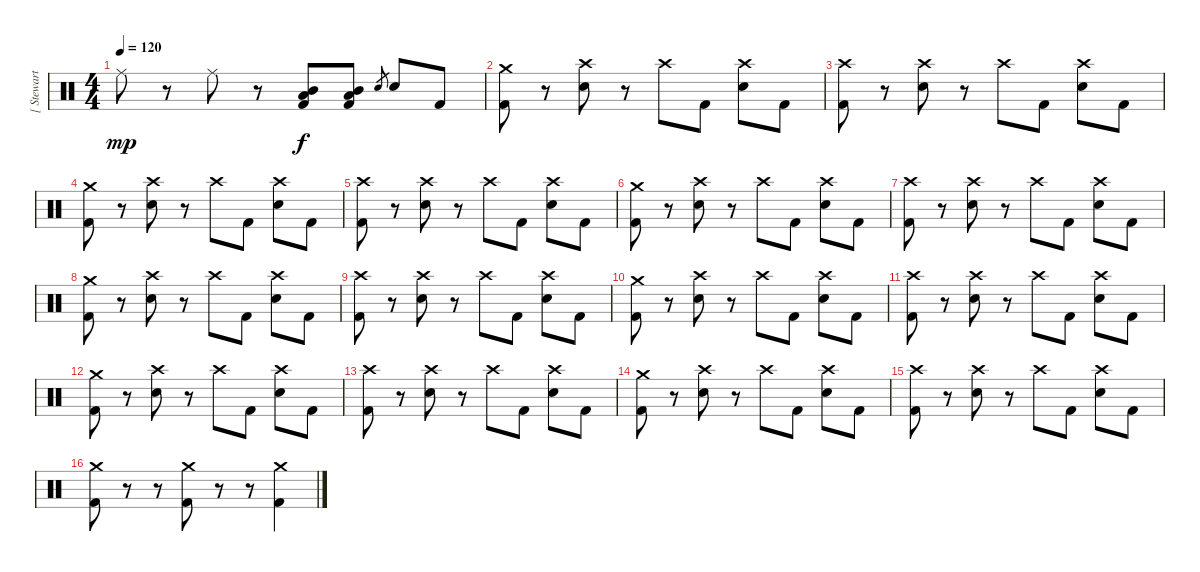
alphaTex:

\track ("[ Stewart ] " "[ Stewart ") {instrument percussion}
\staff {score}
\articulation defaults
\ts (4 4)
\tempo 120
\clef neutral
\ks c "Ride (middle)".8{dy mp}
r.8 "Ride (middle)".8 r.8 ("Mid Tom (hit)" "Low Tom (hit)" "Kick (hit) 2").8{dy f} ("Mid Tom (hit)" "Low Tom (hit)" "Kick (hit) 2").8 "Electric Snare (hit)".8{gr} "Electric Snare (hit)".8 "Kick (hit) 2".8 |
("Kick (hit) 2" "Crash medium (hit)").8 r.8 ("Electric Snare (hit)" "Crash high (hit)").8 r.8 "Crash high (hit)".8 "Kick (hit) 2".8 ("Electric Snare (hit)" "Crash high (hit)").8 "Kick (hit) 2".8 |
("Kick (hit) 2" "Crash high (hit)").8 r.8 ("Electric Snare (hit)" "Crash high (hit)").8 r.8 "Crash high (hit)".8 "Kick (hit) 2".8 ("Electric Snare (hit)" "Crash high (hit)").8 "Kick (hit) 2".8 |
("Kick (hit) 2" "Crash medium (hit)").8 r.8 ("Electric Snare (hit)" "Crash high (hit)").8 r.8 "Crash high (hit)".8 "Kick (hit) 2".8 ("Electric Snare (hit)" "Crash high (hit)").8 "Kick (hit) 2".8 |
("Kick (hit) 2" "Crash high (hit)").8 r.8 ("Electric Snare (hit)" "Crash high (hit)").8 r.8 "Crash high (hit)".8 "Kick (hit) 2".8 ("Electric Snare (hit)" "Crash high (hit)").8 "Kick (hit) 2".8 |
("Kick (hit) 2" "Crash medium (hit)").8 r.8 ("Electric Snare (hit)" "Crash high (hit)").8 r.8 "Crash high (hit)".8 "Kick (hit) 2".8 ("Electric Snare (hit)" "Crash high (hit)").8 "Kick (hit) 2".8 |
("Kick (hit) 2" "Crash high (hit)").8 r.8 ("Electric Snare (hit)" "Crash high (hit)").8 r.8 "Crash high (hit)".8 "Kick (hit) 2".8 ("Electric Snare (hit)" "Crash high (hit)").8 "Kick (hit) 2".8 |
("Kick (hit) 2" "Crash medium (hit)").8 r.8 ("Electric Snare (hit)" "Crash high (hit)").8 r.8 "Crash high (hit)".8 "Kick (hit) 2".8 ("Electric Snare (hit)" "Crash high (hit)").8 "Kick (hit) 2".8 |
("Kick (hit) 2" "Crash high (hit)").8 r.8 ("Electric Snare (hit)" "Crash high (hit)").8 r.8 "Crash high (hit)".8 "Kick (hit) 2".8 ("Electric Snare (hit)" "Crash high (hit)").8 "Kick (hit) 2".8 |
("Kick (hit) 2" "Crash medium (hit)").8 r.8 ("Electric Snare (hit)" "Crash high (hit)").8 r.8 "Crash high (hit)".8 "Kick (hit) 2".8 ("Electric Snare (hit)" "Crash high (hit)").8 "Kick (hit) 2".8 |
("Kick (hit) 2" "Crash high (hit)").8 r.8 ("Electric Snare (hit)" "Crash high (hit)").8 r.8 "Crash high (hit)".8 "Kick (hit) 2".8 ("Electric Snare (hit)" "Crash high (hit)").8 "Kick (hit) 2".8 |
("Kick (hit) 2" "Crash medium (hit)").8 r.8 ("Electric Snare (hit)" "Crash high (hit)").8 r.8 "Crash high (hit)".8 "Kick (hit) 2".8 ("Electric Snare (hit)" "Crash high (hit)").8 "Kick (hit) 2".8 |
("Kick (hit) 2" "Crash high (hit)").8 r.8 ("Electric Snare (hit)" "Crash high (hit)").8 r.8 "Crash high (hit)".8 "Kick (hit) 2".8 ("Electric Snare (hit)" "Crash high (hit)").8 "Kick (hit) 2".8 |
("Kick (hit) 2" "Crash medium (hit)").8 r.8 ("Electric Snare (hit)" "Crash high (hit)").8 r.8 "Crash high (hit)".8 "Kick (hit) 2".8 ("Electric Snare (hit)" "Crash high (hit)").8 "Kick (hit) 2".8 |
("Kick (hit) 2" "Crash high (hit)").8 r.8 ("Electric Snare (hit)" "Crash high (hit)").8 r.8 "Crash high (hit)".8 "Kick (hit) 2".8 ("Electric Snare (hit)" "Crash high (hit)").8 "Kick (hit) 2".8 |
("Kick (hit) 2" "Crash medium (hit)").8 r.8 r.8 ("Kick (hit) 2" "Crash medium (hit)").8 r.8 r.8 ("Kick (hit) 2" "Crash medium (hit)").4
